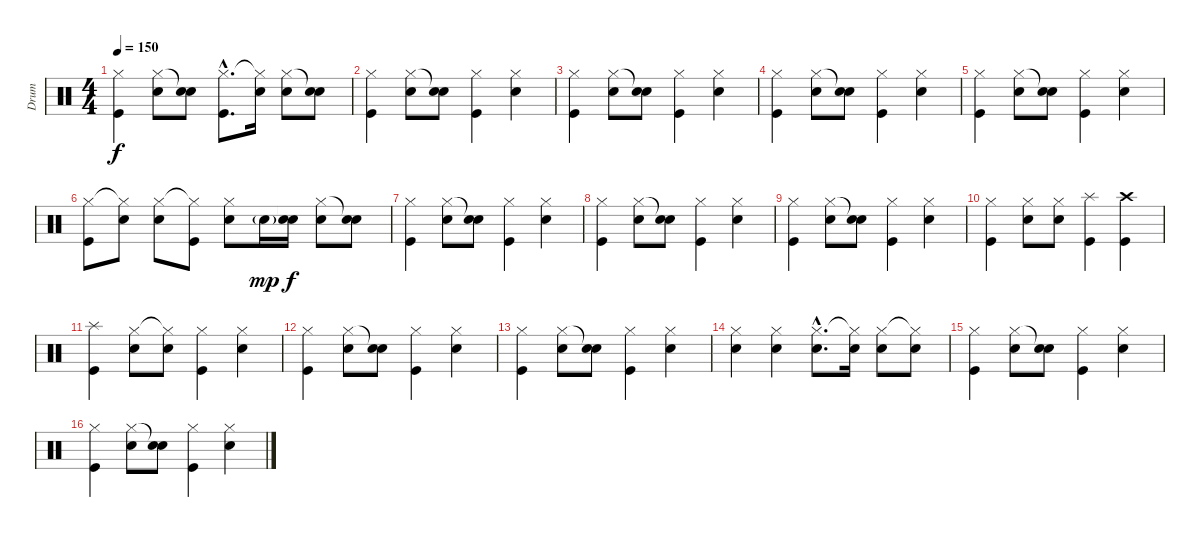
\track ("Drum" "Drum") {instrument percussion}
\staff {score}
\articulation defaults
\ts (4 4)
\tempo 150
\clef neutral
\ks c
("Hi-Hat (closed)" "Kick (hit)").4{dy f} ("Hi-Hat (closed)" "Snare (hit) 2").8 ("Snare (hit)"{t} "Snare (hit) 2").8 ("Hi-Hat (closed)"{hac} "Kick (hit)"{hac}).8{d} ("Hi-Hat (closed)"{t} "Snare (hit) 2").16 ("Hi-Hat (closed)" "Snare (hit) 2").8 ("Snare (hit)"{t} "Snare (hit) 2").8 |
("Hi-Hat (closed)" "Kick (hit)").4 ("Hi-Hat (closed)" "Snare (hit) 2").8 ("Snare (hit)"{t} "Snare (hit) 2").8 ("Hi-Hat (closed)" "Kick (hit)").4 ("Hi-Hat (closed)" "Snare (hit) 2").4 |
("Hi-Hat (closed)" "Kick (hit)").4 ("Hi-Hat (closed)" "Snare (hit) 2").8 ("Snare (hit)"{t} "Snare (hit) 2").8 ("Hi-Hat (closed)" "Kick (hit)").4 ("Hi-Hat (closed)" "Snare (hit) 2").4 |
("Hi-Hat (closed)" "Kick (hit)").4 ("Hi-Hat (closed)" "Snare (hit) 2").8 ("Snare (hit)"{t} "Snare (hit) 2").8 ("Hi-Hat (closed)" "Kick (hit)").4 ("Hi-Hat (closed)" "Snare (hit) 2").4 |
("Hi-Hat (closed)" "Kick (hit)").4 ("Hi-Hat (closed)" "Snare (hit) 2").8 ("Snare (hit)"{t} "Snare (hit) 2").8 ("Hi-Hat (closed)" "Kick (hit)").4 ("Hi-Hat (closed)" "Snare (hit) 2").4 |
("Hi-Hat (closed)" "Kick (hit)").8 ("Hi-Hat (closed)"{t} "Snare (hit) 2").8 ("Hi-Hat (closed)" "Snare (hit) 2").8 ("Hi-Hat (closed)"{t} "Kick (hit)").8 ("Hi-Hat (closed)" "Snare (hit) 2").8 "Snare (hit) 2"{g}.16{dy mp} ("Snare (hit)"{t} "Snare (hit) 2").16{dy f} ("Hi-Hat (closed)" "Snare (hit) 2").8 ("Snare (hit)"{t} "Snare (hit) 2").8 |
("Hi-Hat (closed)" "Kick (hit)").4 ("Hi-Hat (closed)" "Snare (hit) 2").8 ("Snare (hit)"{t} "Snare (hit) 2").8 ("Hi-Hat (closed)" "Kick (hit)").4 ("Hi-Hat (closed)" "Snare (hit) 2").4 |
("Hi-Hat (closed)" "Kick (hit)").4 ("Hi-Hat (closed)" "Snare (hit) 2").8 ("Snare (hit)"{t} "Snare (hit) 2").8 ("Hi-Hat (closed)" "Kick (hit)").4 ("Hi-Hat (closed)" "Snare (hit) 2").4 |
("Hi-Hat (closed)" "Kick (hit)").4 ("Hi-Hat (closed)" "Snare (hit) 2").8 ("Snare (hit)"{t} "Snare (hit) 2").8 ("Hi-Hat (closed)" "Kick (hit)").4 ("Hi-Hat (closed)" "Snare (hit) 2").4 |
("Hi-Hat (closed)" "Kick (hit)").4 ("Hi-Hat (closed)" "Snare (hit) 2").8 ("Hi-Hat (closed)" "Snare (hit) 2").8 ("Splash (hit)" "Kick (hit)").4 ("Crash high (hit)" "Kick (hit)").4 |
("Splash (hit)" "Kick (hit)").4 ("Hi-Hat (closed)" "Snare (hit) 2").8 ("Hi-Hat (closed)"{t} "Snare (hit) 2").8 ("Hi-Hat (closed)" "Kick (hit)").4 ("Hi-Hat (closed)" "Snare (hit) 2").4 |
("Hi-Hat (closed)" "Kick (hit)").4 ("Hi-Hat (closed)" "Snare (hit) 2").8 ("Snare (hit)"{t} "Snare (hit) 2").8 ("Hi-Hat (closed)" "Kick (hit)").4 ("Hi-Hat (closed)" "Snare (hit) 2").4 |
("Hi-Hat (closed)" "Kick (hit)").4 ("Hi-Hat (closed)" "Snare (hit) 2").8 ("Snare (hit)"{t} "Snare (hit) 2").8 ("Hi-Hat (closed)" "Kick (hit)").4 ("Hi-Hat (closed)" "Snare (hit) 2").4 |
("Hi-Hat (closed)" "Snare (hit) 2").4 ("Hi-Hat (closed)" "Snare (hit) 2").4 ("Hi-Hat (closed)"{hac} "Snare (hit) 2"{hac}).8{d} ("Hi-Hat (closed)"{t} "Snare (hit) 2").16 ("Hi-Hat (closed)" "Snare (hit) 2").8 ("Hi-Hat (closed)"{t} "Snare (hit) 2").8 |
("Hi-Hat (closed)" "Kick (hit)").4 ("Hi-Hat (closed)" "Snare (hit) 2").8 ("Snare (hit)"{t} "Snare (hit) 2").8 ("Hi-Hat (closed)" "Kick (hit)").4 ("Hi-Hat (closed)" "Snare (hit) 2").4 |
("Hi-Hat (closed)" "Kick (hit)").4 ("Hi-Hat (closed)" "Snare (hit) 2").8 ("Snare (hit)"{t} "Snare (hit) 2").8 ("Hi-Hat (closed)" "Kick (hit)").4 ("Hi-Hat (closed)" "Snare (hit) 2").4
